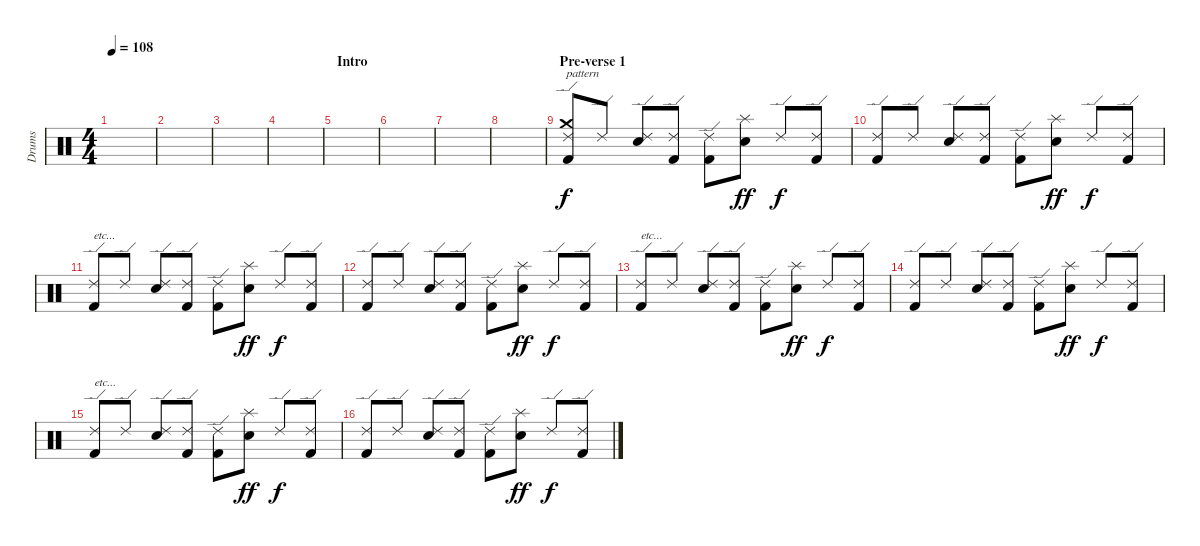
\track ("Drums" "Drums") {instrument percussion}
\staff {score}
\articulation defaults
\ts (4 4)
\tempo 108
\clef neutral
\ks c
|
|
|
|
\section ("" "Intro")
|
|
|
|
\section ("" "Pre-verse 1")
("Ride (edge) 2" "Crash medium (hit)" "Kick (hit) 2").8{txt "pattern"} "Ride (edge) 2".8 ("Ride (edge) 2" "Electric Snare (hit)").8 ("Ride (edge) 2" "Kick (hit) 2").8 ("Ride (edge) 2" "Kick (hit) 2").8 ("Splash (hit)" "Electric Snare (hit)").8{dy ff} "Ride (edge) 2".8{dy f} ("Ride (edge) 2" "Kick (hit) 2").8 |
("Ride (edge) 2" "Kick (hit) 2").8 "Ride (edge) 2".8 ("Ride (edge) 2" "Electric Snare (hit)").8 ("Ride (edge) 2" "Kick (hit) 2").8 ("Ride (edge) 2" "Kick (hit) 2").8 ("Splash (hit)" "Electric Snare (hit)").8{dy ff} "Ride (edge) 2".8{dy f} ("Ride (edge) 2" "Kick (hit) 2").8 |
("Ride (edge) 2" "Kick (hit) 2").8{txt "etc..."} "Ride (edge) 2".8 ("Ride (edge) 2" "Electric Snare (hit)").8 ("Ride (edge) 2" "Kick (hit) 2").8 ("Ride (edge) 2" "Kick (hit) 2").8 ("Splash (hit)" "Electric Snare (hit)").8{dy ff} "Ride (edge) 2".8{dy f} ("Ride (edge) 2" "Kick (hit) 2").8 |
("Ride (edge) 2" "Kick (hit) 2").8 "Ride (edge) 2".8 ("Ride (edge) 2" "Electric Snare (hit)").8 ("Ride (edge) 2" "Kick (hit) 2").8 ("Ride (edge) 2" "Kick (hit) 2").8 ("Splash (hit)" "Electric Snare (hit)").8{dy ff} "Ride (edge) 2".8{dy f} ("Ride (edge) 2" "Kick (hit) 2").8 |
("Ride (edge) 2" "Kick (hit) 2").8{txt "etc..."} "Ride (edge) 2".8 ("Ride (edge) 2" "Electric Snare (hit)").8 ("Ride (edge) 2" "Kick (hit) 2").8 ("Ride (edge) 2" "Kick (hit) 2").8 ("Splash (hit)" "Electric Snare (hit)").8{dy ff} "Ride (edge) 2".8{dy f} ("Ride (edge) 2" "Kick (hit) 2").8 |
("Ride (edge) 2" "Kick (hit) 2").8 "Ride (edge) 2".8 ("Ride (edge) 2" "Electric Snare (hit)").8 ("Ride (edge) 2" "Kick (hit) 2").8 ("Ride (edge) 2" "Kick (hit) 2").8 ("Splash (hit)" "Electric Snare (hit)").8{dy ff} "Ride (edge) 2".8{dy f} ("Ride (edge) 2" "Kick (hit) 2").8 |
("Ride (edge) 2" "Kick (hit) 2").8{txt "etc..."} "Ride (edge) 2".8 ("Ride (edge) 2" "Electric Snare (hit)").8 ("Ride (edge) 2" "Kick (hit) 2").8 ("Ride (edge) 2" "Kick (hit) 2").8 ("Splash (hit)" "Electric Snare (hit)").8{dy ff} "Ride (edge) 2".8{dy f} ("Ride (edge) 2" "Kick (hit) 2").8 |
("Ride (edge) 2" "Kick (hit) 2").8 "Ride (edge) 2".8 ("Ride (edge) 2" "Electric Snare (hit)").8 ("Ride (edge) 2" "Kick (hit) 2").8 ("Ride (edge) 2" "Kick (hit) 2").8 ("Splash (hit)" "Electric Snare (hit)").8{dy ff} "Ride (edge) 2".8{dy f} ("Ride (edge) 2" "Kick (hit) 2").8
